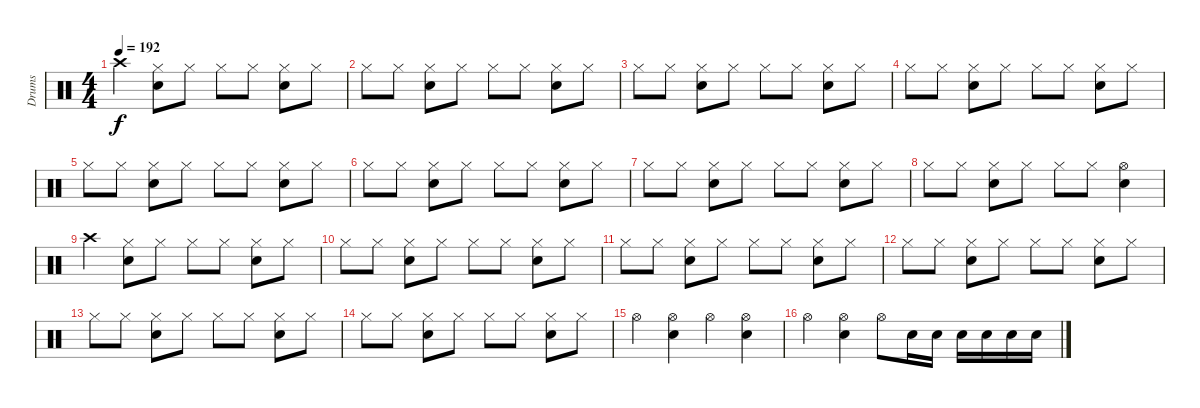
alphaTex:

\track ("Drums" "Drums") {instrument percussion}
\staff {score}
\articulation defaults
\ts (4 4)
\tempo 192
\clef neutral
\ks c "Crash high (hit)".4{dy f}
("Hi-Hat (closed)" "Snare (hit) 2").8 "Hi-Hat (closed)".8 "Hi-Hat (closed)".8 "Hi-Hat (closed)".8 ("Hi-Hat (closed)" "Snare (hit) 2").8 "Hi-Hat (closed)".8 |
"Hi-Hat (closed)".8 "Hi-Hat (closed)".8 ("Hi-Hat (closed)" "Snare (hit) 2").8 "Hi-Hat (closed)".8 "Hi-Hat (closed)".8 "Hi-Hat (closed)".8 ("Hi-Hat (closed)" "Snare (hit) 2").8 "Hi-Hat (closed)".8 |
"Hi-Hat (closed)".8 "Hi-Hat (closed)".8 ("Hi-Hat (closed)" "Snare (hit) 2").8 "Hi-Hat (closed)".8 "Hi-Hat (closed)".8 "Hi-Hat (closed)".8 ("Hi-Hat (closed)" "Snare (hit) 2").8 "Hi-Hat (closed)".8 |
"Hi-Hat (closed)".8 "Hi-Hat (closed)".8 ("Hi-Hat (closed)" "Snare (hit) 2").8 "Hi-Hat (closed)".8 "Hi-Hat (closed)".8 "Hi-Hat (closed)".8 ("Hi-Hat (closed)" "Snare (hit) 2").8 "Hi-Hat (closed)".8 |
"Hi-Hat (closed)".8 "Hi-Hat (closed)".8 ("Hi-Hat (closed)" "Snare (hit) 2").8 "Hi-Hat (closed)".8 "Hi-Hat (closed)".8 "Hi-Hat (closed)".8 ("Hi-Hat (closed)" "Snare (hit) 2").8 "Hi-Hat (closed)".8 |
"Hi-Hat (closed)".8 "Hi-Hat (closed)".8 ("Hi-Hat (closed)" "Snare (hit) 2").8 "Hi-Hat (closed)".8 "Hi-Hat (closed)".8 "Hi-Hat (closed)".8 ("Hi-Hat (closed)" "Snare (hit) 2").8 "Hi-Hat (closed)".8 |
"Hi-Hat (closed)".8 "Hi-Hat (closed)".8 ("Hi-Hat (closed)" "Snare (hit) 2").8 "Hi-Hat (closed)".8 "Hi-Hat (closed)".8 "Hi-Hat (closed)".8 ("Hi-Hat (closed)" "Snare (hit) 2").8 "Hi-Hat (closed)".8 |
"Hi-Hat (closed)".8 "Hi-Hat (closed)".8 ("Hi-Hat (closed)" "Snare (hit) 2").8 "Hi-Hat (closed)".8 "Hi-Hat (closed)".8 "Hi-Hat (closed)".8 ("Hi-Hat (open)" "Snare (hit) 2").4 |
"Crash high (hit)".4 ("Hi-Hat (closed)" "Snare (hit) 2").8 "Hi-Hat (closed)".8 "Hi-Hat (closed)".8 "Hi-Hat (closed)".8 ("Hi-Hat (closed)" "Snare (hit) 2").8 "Hi-Hat (closed)".8 |
"Hi-Hat (closed)".8 "Hi-Hat (closed)".8 ("Hi-Hat (closed)" "Snare (hit) 2").8 "Hi-Hat (closed)".8 "Hi-Hat (closed)".8 "Hi-Hat (closed)".8 ("Hi-Hat (closed)" "Snare (hit) 2").8 "Hi-Hat (closed)".8 |
"Hi-Hat (closed)".8 "Hi-Hat (closed)".8 ("Hi-Hat (closed)" "Snare (hit) 2").8 "Hi-Hat (closed)".8 "Hi-Hat (closed)".8 "Hi-Hat (closed)".8 ("Hi-Hat (closed)" "Snare (hit) 2").8 "Hi-Hat (closed)".8 |
"Hi-Hat (closed)".8 "Hi-Hat (closed)".8 ("Hi-Hat (closed)" "Snare (hit) 2").8 "Hi-Hat (closed)".8 "Hi-Hat (closed)".8 "Hi-Hat (closed)".8 ("Hi-Hat (closed)" "Snare (hit) 2").8 "Hi-Hat (closed)".8 |
"Hi-Hat (closed)".8 "Hi-Hat (closed)".8 ("Hi-Hat (closed)" "Snare (hit) 2").8 "Hi-Hat (closed)".8 "Hi-Hat (closed)".8 "Hi-Hat (closed)".8 ("Hi-Hat (closed)" "Snare (hit) 2").8 "Hi-Hat (closed)".8 |
"Hi-Hat (closed)".8 "Hi-Hat (closed)".8 ("Hi-Hat (closed)" "Snare (hit) 2").8 "Hi-Hat (closed)".8 "Hi-Hat (closed)".8 "Hi-Hat (closed)".8 ("Hi-Hat (closed)" "Snare (hit) 2").8 "Hi-Hat (closed)".8 |
"Hi-Hat (open)".4 ("Hi-Hat (open)" "Snare (hit) 2").4 "Hi-Hat (open)".4 ("Hi-Hat (open)" "Snare (hit) 2").4 |
"Hi-Hat (open)".4 ("Hi-Hat (open)" "Snare (hit) 2").4 "Hi-Hat (open)".8 "Snare (hit) 2".16 "Snare (hit) 2".16 "Snare (hit) 2".16 "Snare (hit) 2".16 "Snare (hit) 2".16 "Snare (hit) 2".16
